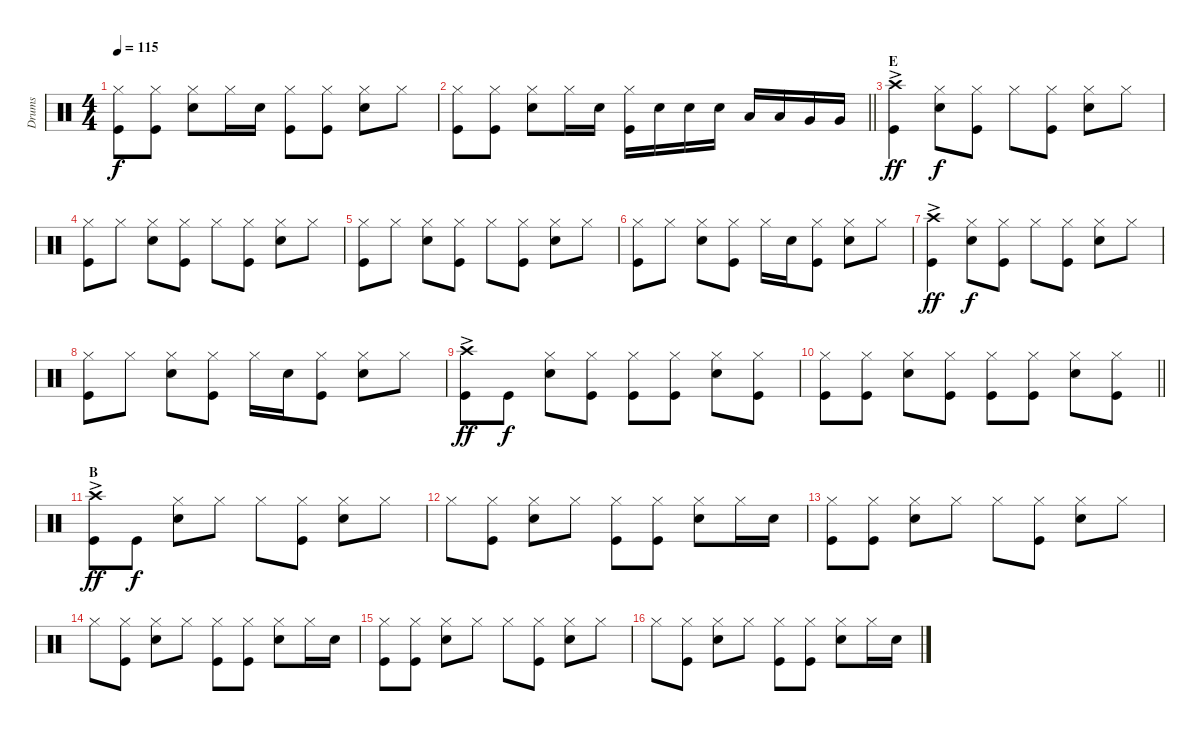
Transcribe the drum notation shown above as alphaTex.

\track ("Drums" "Drums") {instrument percussion}
\staff {score}
\articulation defaults
\ts (4 4)
\tempo 115
\clef neutral
\ks c
("Hi-Hat (closed)" "Kick (hit)").8{dy f} ("Hi-Hat (closed)" "Kick (hit)").8 ("Hi-Hat (closed)" "Snare (hit) 2").8 "Hi-Hat (closed)".16 "Snare (hit) 2".16 ("Hi-Hat (closed)" "Kick (hit)").8 ("Hi-Hat (closed)" "Kick (hit)").8 ("Hi-Hat (closed)" "Snare (hit) 2").8 "Hi-Hat (closed)".8 |
\barLineRight lightlight
("Hi-Hat (closed)" "Kick (hit)").8 ("Hi-Hat (closed)" "Kick (hit)").8 ("Hi-Hat (closed)" "Snare (hit) 2").8 "Hi-Hat (closed)".16 "Snare (hit) 2".16 ("Hi-Hat (closed)" "Kick (hit)").16 "Snare (hit) 2".16 "Snare (hit) 2".16 "Snare (hit) 2".16 "Low Tom (hit)".16 "Low Tom (hit)".16 "Very Low Tom (hit)".16 "Very Low Tom (hit)".16 |
\section ("" "E")
("Crash high (hit)"{ac} "Kick (hit)").4{dy ff} ("Hi-Hat (closed)" "Snare (hit) 2").8{dy f} ("Hi-Hat (closed)" "Kick (hit)").8 "Hi-Hat (closed)".8 ("Hi-Hat (closed)" "Kick (hit)").8 ("Hi-Hat (closed)" "Snare (hit) 2").8 "Hi-Hat (closed)".8 |
("Hi-Hat (closed)" "Kick (hit)").8 "Hi-Hat (closed)".8 ("Hi-Hat (closed)" "Snare (hit) 2").8 ("Hi-Hat (closed)" "Kick (hit)").8 "Hi-Hat (closed)".8 ("Hi-Hat (closed)" "Kick (hit)").8 ("Hi-Hat (closed)" "Snare (hit) 2").8 "Hi-Hat (closed)".8 |
("Hi-Hat (closed)" "Kick (hit)").8 "Hi-Hat (closed)".8 ("Hi-Hat (closed)" "Snare (hit) 2").8 ("Hi-Hat (closed)" "Kick (hit)").8 "Hi-Hat (closed)".8 ("Hi-Hat (closed)" "Kick (hit)").8 ("Hi-Hat (closed)" "Snare (hit) 2").8 "Hi-Hat (closed)".8 |
("Hi-Hat (closed)" "Kick (hit)").8 "Hi-Hat (closed)".8 ("Hi-Hat (closed)" "Snare (hit) 2").8 ("Hi-Hat (closed)" "Kick (hit)").8 "Hi-Hat (closed)".16 "Snare (hit) 2".16 ("Hi-Hat (closed)" "Kick (hit)").8 ("Hi-Hat (closed)" "Snare (hit) 2").8 "Hi-Hat (closed)".8 |
("Crash high (hit)"{ac} "Kick (hit)").4{dy ff} ("Hi-Hat (closed)" "Snare (hit) 2").8{dy f} ("Hi-Hat (closed)" "Kick (hit)").8 "Hi-Hat (closed)".8 ("Hi-Hat (closed)" "Kick (hit)").8 ("Hi-Hat (closed)" "Snare (hit) 2").8 "Hi-Hat (closed)".8 |
("Hi-Hat (closed)" "Kick (hit)").8 "Hi-Hat (closed)".8 ("Hi-Hat (closed)" "Snare (hit) 2").8 ("Hi-Hat (closed)" "Kick (hit)").8 "Hi-Hat (closed)".16 "Snare (hit) 2".16 ("Hi-Hat (closed)" "Kick (hit)").8 ("Hi-Hat (closed)" "Snare (hit) 2").8 "Hi-Hat (closed)".8 |
("Crash high (hit)"{ac} "Kick (hit)").8{dy ff} "Kick (hit)".8{dy f} ("Hi-Hat (closed)" "Snare (hit) 2").8 ("Hi-Hat (closed)" "Kick (hit)").8 ("Hi-Hat (closed)" "Kick (hit)").8 ("Hi-Hat (closed)" "Kick (hit)").8 ("Hi-Hat (closed)" "Snare (hit) 2").8 ("Hi-Hat (closed)" "Kick (hit)").8 |
\barLineRight lightlight
("Hi-Hat (closed)" "Kick (hit)").8 ("Hi-Hat (closed)" "Kick (hit)").8 ("Hi-Hat (closed)" "Snare (hit) 2").8 ("Hi-Hat (closed)" "Kick (hit)").8 ("Hi-Hat (closed)" "Kick (hit)").8 ("Hi-Hat (closed)" "Kick (hit)").8 ("Hi-Hat (closed)" "Snare (hit) 2").8 ("Hi-Hat (closed)" "Kick (hit)").8 |
\section ("" "B")
("Crash high (hit)"{ac} "Kick (hit)").8{dy ff} "Kick (hit)".8{dy f} ("Snare (hit) 2" "Hi-Hat (closed)").8 "Hi-Hat (closed)".8 "Hi-Hat (closed)".8 ("Hi-Hat (closed)" "Kick (hit)").8 ("Hi-Hat (closed)" "Snare (hit) 2").8 "Hi-Hat (closed)".8 |
"Hi-Hat (closed)".8 ("Hi-Hat (closed)" "Kick (hit)").8 ("Hi-Hat (closed)" "Snare (hit) 2").8 "Hi-Hat (closed)".8 ("Hi-Hat (closed)" "Kick (hit)").8 ("Hi-Hat (closed)" "Kick (hit)").8 ("Hi-Hat (closed)" "Snare (hit) 2").8 "Hi-Hat (closed)".16 "Snare (hit) 2".16 |
("Hi-Hat (closed)" "Kick (hit)").8 ("Hi-Hat (closed)" "Kick (hit)").8 ("Hi-Hat (closed)" "Snare (hit) 2").8 "Hi-Hat (closed)".8 "Hi-Hat (closed)".8 ("Hi-Hat (closed)" "Kick (hit)").8 ("Hi-Hat (closed)" "Snare (hit) 2").8 "Hi-Hat (closed)".8 |
"Hi-Hat (closed)".8 ("Hi-Hat (closed)" "Kick (hit)").8 ("Hi-Hat (closed)" "Snare (hit) 2").8 "Hi-Hat (closed)".8 ("Hi-Hat (closed)" "Kick (hit)").8 ("Hi-Hat (closed)" "Kick (hit)").8 ("Hi-Hat (closed)" "Snare (hit) 2").8 "Hi-Hat (closed)".16 "Snare (hit) 2".16 |
("Hi-Hat (closed)" "Kick (hit)").8 ("Hi-Hat (closed)" "Kick (hit)").8 ("Hi-Hat (closed)" "Snare (hit) 2").8 "Hi-Hat (closed)".8 "Hi-Hat (closed)".8 ("Hi-Hat (closed)" "Kick (hit)").8 ("Hi-Hat (closed)" "Snare (hit) 2").8 "Hi-Hat (closed)".8 |
"Hi-Hat (closed)".8 ("Hi-Hat (closed)" "Kick (hit)").8 ("Hi-Hat (closed)" "Snare (hit) 2").8 "Hi-Hat (closed)".8 ("Hi-Hat (closed)" "Kick (hit)").8 ("Hi-Hat (closed)" "Kick (hit)").8 ("Hi-Hat (closed)" "Snare (hit) 2").8 "Hi-Hat (closed)".16 "Snare (hit) 2".16
